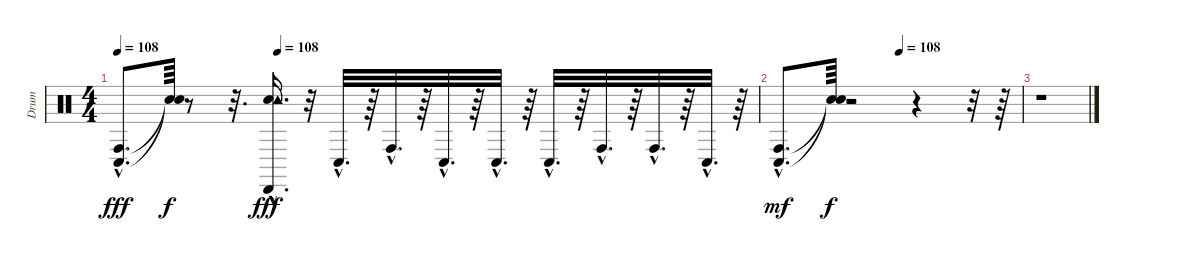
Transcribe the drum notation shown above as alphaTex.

\track ("Drum" "Drum") {instrument percussion}
\staff {score}
\articulation defaults
\ts (4 4)
\tempo 108
\tempo (108 0.25)
\clef neutral
\ks c
("Conga low (hit)"{hac} "Conga high (hit)"{hac}).8{d dy fff} ("Snare (hit)"{t} "Snare (hit)"{t}).64{dy f} r.8 r.32{d} ("Snare (hit) 2"{hac} "Tambourine (hit)"{hac} "Cabasa (hit)"{hac}).16{d dy fff} r.32 "Conga low (hit)"{hac}.32{d} r.64 "Conga high (hit)"{hac}.32{d} r.64 "Conga low (hit)"{hac}.32{d} r.64 "Conga low (hit)"{hac}.32{d} r.64 "Conga low (hit)"{hac}.32{d} r.64 "Conga high (hit)"{hac}.32{d} r.64 "Conga high (hit)"{hac}.32{d} r.64 "Conga low (hit)"{hac}.32{d} r.64 |
\tempo (108 0.5)
("Conga high (hit)"{hac} "Conga low (hit)"{hac}).8{d dy mf} ("Snare (hit)"{t} "Snare (hit)"{t}).64{dy f} r.2 r.4 r.32 r.64 |
r.1
